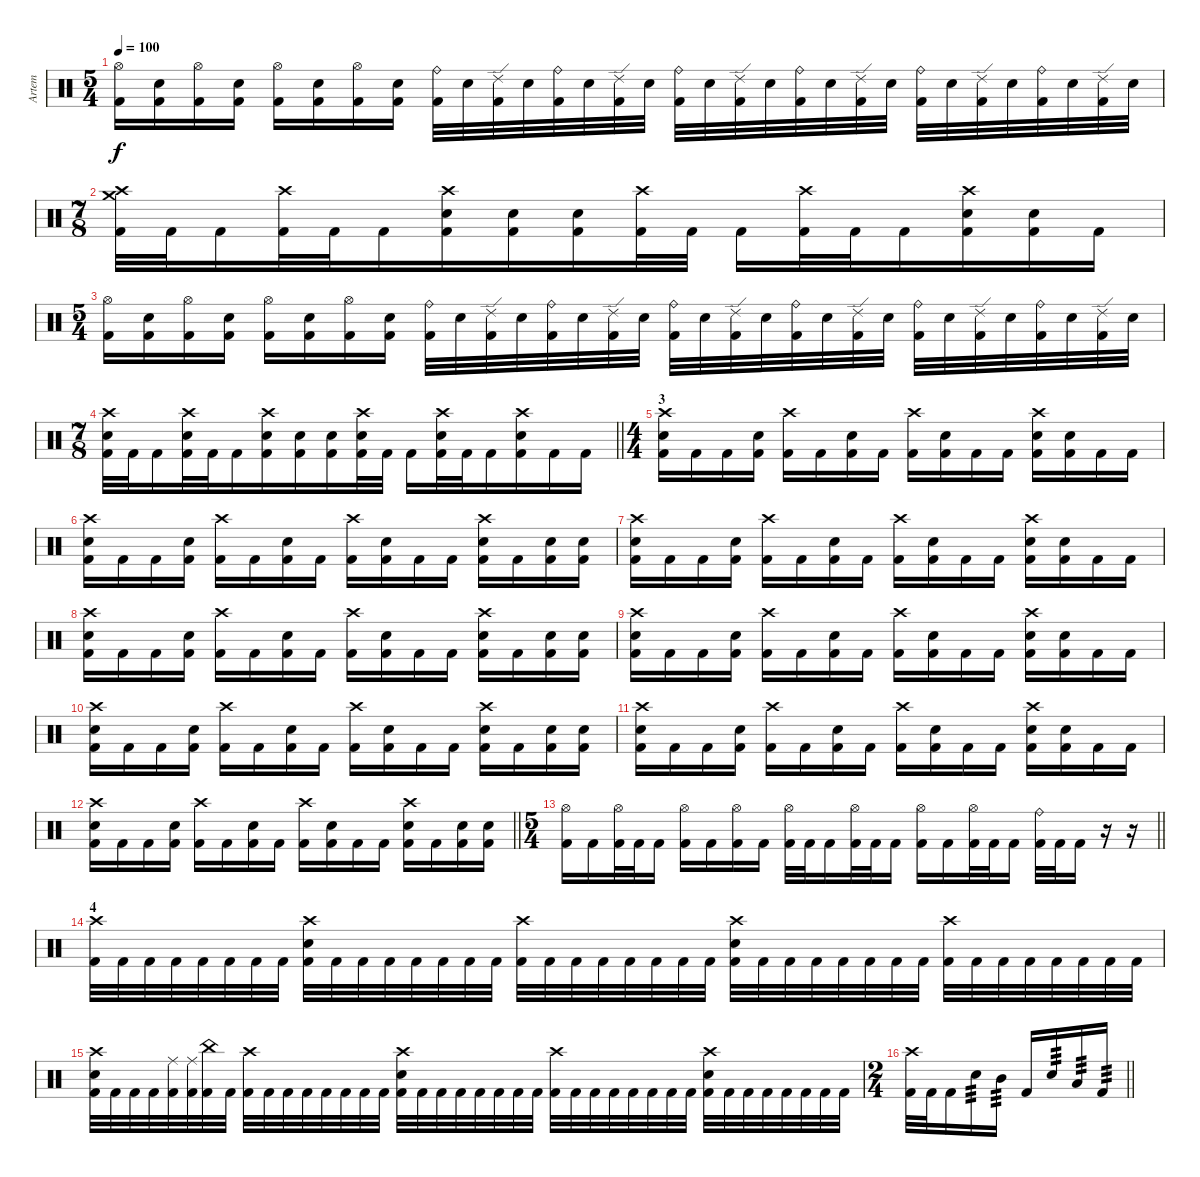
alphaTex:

\track ("Artem" "Artem") {instrument percussion}
\staff {score}
\articulation defaults
\ts (5 4)
\tempo 100
\clef neutral
\ks c
("Kick (hit) 2" "Hi-Hat (open)").16{dy f} ("Kick (hit) 2" "Snare (hit) 2").16 ("Kick (hit) 2" "Hi-Hat (open)").16 ("Kick (hit) 2" "Snare (hit) 2").16 ("Kick (hit) 2" "Hi-Hat (open)").16 ("Kick (hit) 2" "Snare (hit) 2").16 ("Kick (hit) 2" "Hi-Hat (open)").16 ("Kick (hit) 2" "Snare (hit) 2").16 ("Kick (hit) 2" "Ride (bell)").32 "Snare (hit) 2".32 ("Kick (hit) 2" "Ride (edge) 2").32 "Snare (hit) 2".32 ("Kick (hit) 2" "Ride (bell)").32 "Snare (hit) 2".32 ("Kick (hit) 2" "Ride (edge) 2").32 "Snare (hit) 2".32 ("Kick (hit) 2" "Ride (bell)").32 "Snare (hit) 2".32 ("Kick (hit) 2" "Ride (edge) 2").32 "Snare (hit) 2".32 ("Kick (hit) 2" "Ride (bell)").32 "Snare (hit) 2".32 ("Kick (hit) 2" "Ride (edge) 2").32 "Snare (hit) 2".32 ("Kick (hit) 2" "Ride (bell)").32 "Snare (hit) 2".32 ("Kick (hit) 2" "Ride (edge) 2").32 "Snare (hit) 2".32 ("Kick (hit) 2" "Ride (bell)").32 "Snare (hit) 2".32 ("Kick (hit) 2" "Ride (edge) 2").32 "Snare (hit) 2".32 |
\ts (7 8)
("Kick (hit) 2" "Crash high (hit)" "Crash medium (hit)").32 "Kick (hit) 2".32 "Kick (hit) 2".16 ("Kick (hit) 2" "Crash high (hit)").32 "Kick (hit) 2".32 "Kick (hit) 2".16 ("Kick (hit) 2" "Crash high (hit)" "Snare (hit) 2").16 ("Kick (hit) 2" "Snare (hit) 2").16 ("Kick (hit) 2" "Snare (hit) 2").16 ("Kick (hit) 2" "Crash high (hit)").32 "Kick (hit) 2".32 "Kick (hit) 2".16 ("Kick (hit) 2" "Crash high (hit)").32 "Kick (hit) 2".32 "Kick (hit) 2".16 ("Kick (hit) 2" "Crash high (hit)" "Snare (hit) 2").16 ("Kick (hit) 2" "Snare (hit) 2").16 "Kick (hit) 2".16 |
\ts (5 4)
("Kick (hit) 2" "Hi-Hat (open)").16 ("Kick (hit) 2" "Snare (hit) 2").16 ("Kick (hit) 2" "Hi-Hat (open)").16 ("Kick (hit) 2" "Snare (hit) 2").16 ("Kick (hit) 2" "Hi-Hat (open)").16 ("Kick (hit) 2" "Snare (hit) 2").16 ("Kick (hit) 2" "Hi-Hat (open)").16 ("Kick (hit) 2" "Snare (hit) 2").16 ("Kick (hit) 2" "Ride (bell)").32 "Snare (hit) 2".32 ("Kick (hit) 2" "Ride (edge) 2").32 "Snare (hit) 2".32 ("Kick (hit) 2" "Ride (bell)").32 "Snare (hit) 2".32 ("Kick (hit) 2" "Ride (edge) 2").32 "Snare (hit) 2".32 ("Kick (hit) 2" "Ride (bell)").32 "Snare (hit) 2".32 ("Kick (hit) 2" "Ride (edge) 2").32 "Snare (hit) 2".32 ("Kick (hit) 2" "Ride (bell)").32 "Snare (hit) 2".32 ("Kick (hit) 2" "Ride (edge) 2").32 "Snare (hit) 2".32 ("Kick (hit) 2" "Ride (bell)").32 "Snare (hit) 2".32 ("Kick (hit) 2" "Ride (edge) 2").32 "Snare (hit) 2".32 ("Kick (hit) 2" "Ride (bell)").32 "Snare (hit) 2".32 ("Kick (hit) 2" "Ride (edge) 2").32 "Snare (hit) 2".32 |
\ts (7 8)
\barLineRight lightlight
("Kick (hit) 2" "Crash high (hit)" "Snare (hit) 2").32 "Kick (hit) 2".32 "Kick (hit) 2".16 ("Kick (hit) 2" "Crash high (hit)" "Snare (hit) 2").32 "Kick (hit) 2".32 "Kick (hit) 2".16 ("Kick (hit) 2" "Crash high (hit)" "Snare (hit) 2").16 ("Kick (hit) 2" "Snare (hit) 2").16 ("Kick (hit) 2" "Snare (hit) 2").16 ("Kick (hit) 2" "Crash high (hit)" "Snare (hit) 2").32 "Kick (hit) 2".32 "Kick (hit) 2".16 ("Kick (hit) 2" "Crash high (hit)" "Snare (hit) 2").32 "Kick (hit) 2".32 "Kick (hit) 2".16 ("Kick (hit) 2" "Crash high (hit)" "Snare (hit) 2").16 "Kick (hit) 2".16 "Kick (hit) 2".16 |
\ts (4 4)
\section ("" "3")
("Kick (hit) 2" "Crash high (hit)" "Snare (hit) 2").16 "Kick (hit) 2".16 "Kick (hit) 2".16 ("Kick (hit) 2" "Snare (hit) 2").16 ("Kick (hit) 2" "Crash high (hit)").16 "Kick (hit) 2".16 ("Kick (hit) 2" "Snare (hit) 2").16 "Kick (hit) 2".16 ("Kick (hit) 2" "Crash high (hit)").16 ("Kick (hit) 2" "Snare (hit) 2").16 "Kick (hit) 2".16 "Kick (hit) 2".16 ("Kick (hit) 2" "Crash high (hit)" "Snare (hit) 2").16 ("Kick (hit) 2" "Snare (hit) 2").16 "Kick (hit) 2".16 "Kick (hit) 2".16 |
("Kick (hit) 2" "Crash high (hit)" "Snare (hit) 2").16 "Kick (hit) 2".16 "Kick (hit) 2".16 ("Kick (hit) 2" "Snare (hit) 2").16 ("Kick (hit) 2" "Crash high (hit)").16 "Kick (hit) 2".16 ("Kick (hit) 2" "Snare (hit) 2").16 "Kick (hit) 2".16 ("Kick (hit) 2" "Crash high (hit)").16 ("Kick (hit) 2" "Snare (hit) 2").16 "Kick (hit) 2".16 "Kick (hit) 2".16 ("Kick (hit) 2" "Crash high (hit)" "Snare (hit) 2").16 "Kick (hit) 2".16 ("Kick (hit) 2" "Snare (hit) 2").16 ("Kick (hit) 2" "Snare (hit) 2").16 |
("Kick (hit) 2" "Crash high (hit)" "Snare (hit) 2").16 "Kick (hit) 2".16 "Kick (hit) 2".16 ("Kick (hit) 2" "Snare (hit) 2").16 ("Kick (hit) 2" "Crash high (hit)").16 "Kick (hit) 2".16 ("Kick (hit) 2" "Snare (hit) 2").16 "Kick (hit) 2".16 ("Kick (hit) 2" "Crash high (hit)").16 ("Kick (hit) 2" "Snare (hit) 2").16 "Kick (hit) 2".16 "Kick (hit) 2".16 ("Kick (hit) 2" "Crash high (hit)" "Snare (hit) 2").16 ("Kick (hit) 2" "Snare (hit) 2").16 "Kick (hit) 2".16 "Kick (hit) 2".16 |
("Kick (hit) 2" "Crash high (hit)" "Snare (hit) 2").16 "Kick (hit) 2".16 "Kick (hit) 2".16 ("Kick (hit) 2" "Snare (hit) 2").16 ("Kick (hit) 2" "Crash high (hit)").16 "Kick (hit) 2".16 ("Kick (hit) 2" "Snare (hit) 2").16 "Kick (hit) 2".16 ("Kick (hit) 2" "Crash high (hit)").16 ("Kick (hit) 2" "Snare (hit) 2").16 "Kick (hit) 2".16 "Kick (hit) 2".16 ("Kick (hit) 2" "Crash high (hit)" "Snare (hit) 2").16 "Kick (hit) 2".16 ("Kick (hit) 2" "Snare (hit) 2").16 ("Kick (hit) 2" "Snare (hit) 2").16 |
("Kick (hit) 2" "Crash high (hit)" "Snare (hit) 2").16 "Kick (hit) 2".16 "Kick (hit) 2".16 ("Kick (hit) 2" "Snare (hit) 2").16 ("Kick (hit) 2" "Crash high (hit)").16 "Kick (hit) 2".16 ("Kick (hit) 2" "Snare (hit) 2").16 "Kick (hit) 2".16 ("Kick (hit) 2" "Crash high (hit)").16 ("Kick (hit) 2" "Snare (hit) 2").16 "Kick (hit) 2".16 "Kick (hit) 2".16 ("Kick (hit) 2" "Crash high (hit)" "Snare (hit) 2").16 ("Kick (hit) 2" "Snare (hit) 2").16 "Kick (hit) 2".16 "Kick (hit) 2".16 |
("Kick (hit) 2" "Crash high (hit)" "Snare (hit) 2").16 "Kick (hit) 2".16 "Kick (hit) 2".16 ("Kick (hit) 2" "Snare (hit) 2").16 ("Kick (hit) 2" "Crash high (hit)").16 "Kick (hit) 2".16 ("Kick (hit) 2" "Snare (hit) 2").16 "Kick (hit) 2".16 ("Kick (hit) 2" "Crash high (hit)").16 ("Kick (hit) 2" "Snare (hit) 2").16 "Kick (hit) 2".16 "Kick (hit) 2".16 ("Kick (hit) 2" "Crash high (hit)" "Snare (hit) 2").16 "Kick (hit) 2".16 ("Kick (hit) 2" "Snare (hit) 2").16 ("Kick (hit) 2" "Snare (hit) 2").16 |
("Kick (hit) 2" "Crash high (hit)" "Snare (hit) 2").16 "Kick (hit) 2".16 "Kick (hit) 2".16 ("Kick (hit) 2" "Snare (hit) 2").16 ("Kick (hit) 2" "Crash high (hit)").16 "Kick (hit) 2".16 ("Kick (hit) 2" "Snare (hit) 2").16 "Kick (hit) 2".16 ("Kick (hit) 2" "Crash high (hit)").16 ("Kick (hit) 2" "Snare (hit) 2").16 "Kick (hit) 2".16 "Kick (hit) 2".16 ("Kick (hit) 2" "Crash high (hit)" "Snare (hit) 2").16 ("Kick (hit) 2" "Snare (hit) 2").16 "Kick (hit) 2".16 "Kick (hit) 2".16 |
\barLineRight lightlight
("Kick (hit) 2" "Crash high (hit)" "Snare (hit) 2").16 "Kick (hit) 2".16 "Kick (hit) 2".16 ("Kick (hit) 2" "Snare (hit) 2").16 ("Kick (hit) 2" "Crash high (hit)").16 "Kick (hit) 2".16 ("Kick (hit) 2" "Snare (hit) 2").16 "Kick (hit) 2".16 ("Kick (hit) 2" "Crash high (hit)").16 ("Kick (hit) 2" "Snare (hit) 2").16 "Kick (hit) 2".16 "Kick (hit) 2".16 ("Kick (hit) 2" "Crash high (hit)" "Snare (hit) 2").16 "Kick (hit) 2".16 ("Kick (hit) 2" "Snare (hit) 2").16 ("Kick (hit) 2" "Snare (hit) 2").16 |
\ts (5 4)
\section ("" "")
\barLineRight lightlight
("Hi-Hat (open)" "Kick (hit) 2").16 "Kick (hit) 2".16 ("Kick (hit) 2" "Hi-Hat (open)").32 "Kick (hit) 2".32 "Kick (hit) 2".16 ("Hi-Hat (open)" "Kick (hit) 2").16 "Kick (hit) 2".16 ("Kick (hit) 2" "Hi-Hat (open)").16 "Kick (hit) 2".16 ("Kick (hit) 2" "Hi-Hat (open)").32 "Kick (hit) 2".32 "Kick (hit) 2".16 ("Kick (hit) 2" "Hi-Hat (open)").32 "Kick (hit) 2".32 "Kick (hit) 2".16 ("Hi-Hat (open)" "Kick (hit) 2").16 "Kick (hit) 2".16 ("Kick (hit) 2" "Hi-Hat (open)").32 "Kick (hit) 2".32 "Kick (hit) 2".16 ("Kick (hit) 2" "Ride (bell)").32 "Kick (hit) 2".32 "Kick (hit) 2".16 r.16 r.16 |
\section ("" "4")
("Kick (hit) 2" "Crash high (hit)").32 "Kick (hit) 2".32 "Kick (hit) 2".32 "Kick (hit) 2".32 "Kick (hit) 2".32 "Kick (hit) 2".32 "Kick (hit) 2".32 "Kick (hit) 2".32 ("Kick (hit) 2" "Snare (hit) 2" "Crash high (hit)").32 "Kick (hit) 2".32 "Kick (hit) 2".32 "Kick (hit) 2".32 "Kick (hit) 2".32 "Kick (hit) 2".32 "Kick (hit) 2".32 "Kick (hit) 2".32 ("Kick (hit) 2" "Crash high (hit)").32 "Kick (hit) 2".32 "Kick (hit) 2".32 "Kick (hit) 2".32 "Kick (hit) 2".32 "Kick (hit) 2".32 "Kick (hit) 2".32 "Kick (hit) 2".32 ("Kick (hit) 2" "Snare (hit) 2" "Crash high (hit)").32 "Kick (hit) 2".32 "Kick (hit) 2".32 "Kick (hit) 2".32 "Kick (hit) 2".32 "Kick (hit) 2".32 "Kick (hit) 2".32 "Kick (hit) 2".32 ("Kick (hit) 2" "Crash high (hit)").32 "Kick (hit) 2".32 "Kick (hit) 2".32 "Kick (hit) 2".32 "Kick (hit) 2".32 "Kick (hit) 2".32 "Kick (hit) 2".32 "Kick (hit) 2".32 |
("Kick (hit) 2" "Snare (hit) 2" "Crash high (hit)").32 "Kick (hit) 2".32 "Kick (hit) 2".32 "Kick (hit) 2".32 ("Kick (hit) 2" "Ride (middle)").32 ("Kick (hit) 2" "Ride (middle)").32 ("Kick (hit) 2" "China (hit)").32 "Kick (hit) 2".32 ("Kick (hit) 2" "Crash high (hit)").32 "Kick (hit) 2".32 "Kick (hit) 2".32 "Kick (hit) 2".32 "Kick (hit) 2".32 "Kick (hit) 2".32 "Kick (hit) 2".32 "Kick (hit) 2".32 ("Kick (hit) 2" "Snare (hit) 2" "Crash high (hit)").32 "Kick (hit) 2".32 "Kick (hit) 2".32 "Kick (hit) 2".32 "Kick (hit) 2".32 "Kick (hit) 2".32 "Kick (hit) 2".32 "Kick (hit) 2".32 ("Kick (hit) 2" "Crash high (hit)").32 "Kick (hit) 2".32 "Kick (hit) 2".32 "Kick (hit) 2".32 "Kick (hit) 2".32 "Kick (hit) 2".32 "Kick (hit) 2".32 "Kick (hit) 2".32 ("Kick (hit) 2" "Snare (hit) 2" "Crash high (hit)").32 "Kick (hit) 2".32 "Kick (hit) 2".32 "Kick (hit) 2".32 "Kick (hit) 2".32 "Kick (hit) 2".32 "Kick (hit) 2".32 "Kick (hit) 2".32 |
\ts (2 4)
\barLineRight lightlight
("Kick (hit) 2" "Crash high (hit)").32 "Kick (hit) 2".32 "Kick (hit) 2".16 "Snare (hit) 2".16{tp 3} "Mid Tom (hit)".16{tp 3} "Kick (hit) 2".16 "Snare (hit) 2".16{tp 3} "Low Tom (hit)".16{tp 3} "Kick (hit) 2".16{tp 3}
